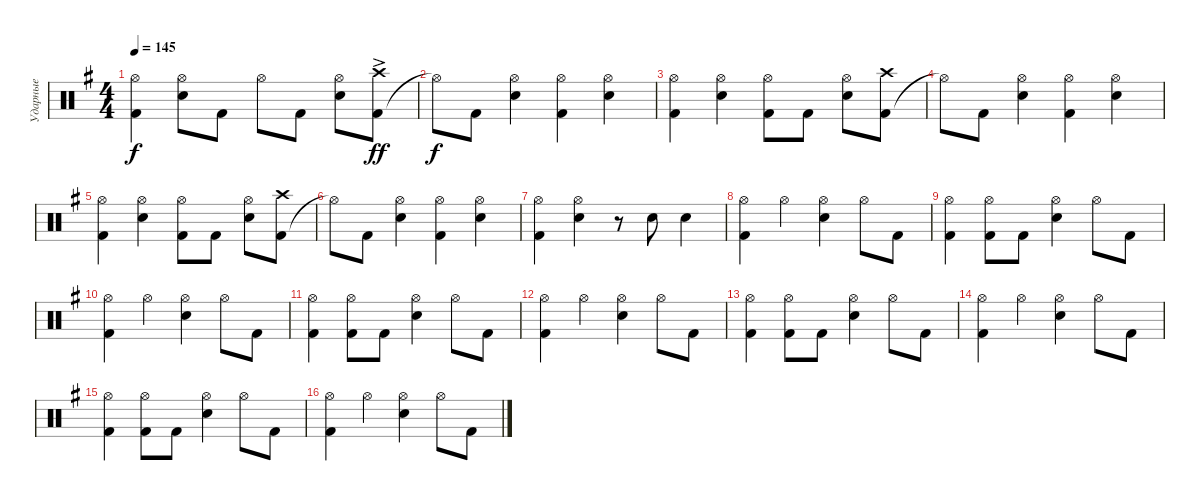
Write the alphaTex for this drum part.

\track ("Ударные" "Ударные") {instrument percussion}
\staff {score}
\articulation defaults
\ts (4 4)
\tempo 145
\clef neutral
\ks g
("Kick (hit) 2" "Hi-Hat (open)").4{dy f} ("Snare (hit) 2" "Hi-Hat (open)").8 "Kick (hit) 2".8 "Hi-Hat (open)".8 "Kick (hit) 2".8 ("Snare (hit) 2" "Hi-Hat (open)").8 ("Kick (hit) 2" "Crash high (hit)"{ac}).8{dy ff} |
"Hi-Hat (open)"{t}.8{dy f} "Kick (hit) 2".8 ("Snare (hit) 2" "Hi-Hat (open)").4 ("Kick (hit) 2" "Hi-Hat (open)").4 ("Snare (hit) 2" "Hi-Hat (open)").4 |
("Kick (hit) 2" "Hi-Hat (open)").4 ("Snare (hit) 2" "Hi-Hat (open)").4 ("Kick (hit) 2" "Hi-Hat (open)").8 "Kick (hit) 2".8 ("Snare (hit) 2" "Hi-Hat (open)").8 ("Kick (hit) 2" "Crash high (hit)").8 |
"Hi-Hat (open)"{t}.8 "Kick (hit) 2".8 ("Snare (hit) 2" "Hi-Hat (open)").4 ("Kick (hit) 2" "Hi-Hat (open)").4 ("Snare (hit) 2" "Hi-Hat (open)").4 |
("Kick (hit) 2" "Hi-Hat (open)").4 ("Snare (hit) 2" "Hi-Hat (open)").4 ("Kick (hit) 2" "Hi-Hat (open)").8 "Kick (hit) 2".8 ("Snare (hit) 2" "Hi-Hat (open)").8 ("Kick (hit) 2" "Crash high (hit)").8 |
"Hi-Hat (open)"{t}.8 "Kick (hit) 2".8 ("Snare (hit) 2" "Hi-Hat (open)").4 ("Kick (hit) 2" "Hi-Hat (open)").4 ("Snare (hit) 2" "Hi-Hat (open)").4 |
("Kick (hit) 2" "Hi-Hat (open)").4 ("Snare (hit) 2" "Hi-Hat (open)").4 r.8 "Snare (hit) 2".8 "Snare (hit) 2".4 |
("Kick (hit) 2" "Hi-Hat (open)").4 "Hi-Hat (open)".4 ("Snare (hit) 2" "Hi-Hat (open)").4 "Hi-Hat (open)".8 "Kick (hit) 2".8 |
("Kick (hit) 2" "Hi-Hat (open)").4 ("Kick (hit) 2" "Hi-Hat (open)").8 "Kick (hit) 2".8 ("Snare (hit) 2" "Hi-Hat (open)").4 "Hi-Hat (open)".8 "Kick (hit) 2".8 |
("Kick (hit) 2" "Hi-Hat (open)").4 "Hi-Hat (open)".4 ("Snare (hit) 2" "Hi-Hat (open)").4 "Hi-Hat (open)".8 "Kick (hit) 2".8 |
("Kick (hit) 2" "Hi-Hat (open)").4 ("Kick (hit) 2" "Hi-Hat (open)").8 "Kick (hit) 2".8 ("Snare (hit) 2" "Hi-Hat (open)").4 "Hi-Hat (open)".8 "Kick (hit) 2".8 |
("Kick (hit) 2" "Hi-Hat (open)").4 "Hi-Hat (open)".4 ("Snare (hit) 2" "Hi-Hat (open)").4 "Hi-Hat (open)".8 "Kick (hit) 2".8 |
("Kick (hit) 2" "Hi-Hat (open)").4 ("Kick (hit) 2" "Hi-Hat (open)").8 "Kick (hit) 2".8 ("Snare (hit) 2" "Hi-Hat (open)").4 "Hi-Hat (open)".8 "Kick (hit) 2".8 |
("Kick (hit) 2" "Hi-Hat (open)").4 "Hi-Hat (open)".4 ("Snare (hit) 2" "Hi-Hat (open)").4 "Hi-Hat (open)".8 "Kick (hit) 2".8 |
("Kick (hit) 2" "Hi-Hat (open)").4 ("Kick (hit) 2" "Hi-Hat (open)").8 "Kick (hit) 2".8 ("Snare (hit) 2" "Hi-Hat (open)").4 "Hi-Hat (open)".8 "Kick (hit) 2".8 |
("Kick (hit) 2" "Hi-Hat (open)").4 "Hi-Hat (open)".4 ("Snare (hit) 2" "Hi-Hat (open)").4 "Hi-Hat (open)".8 "Kick (hit) 2".8
